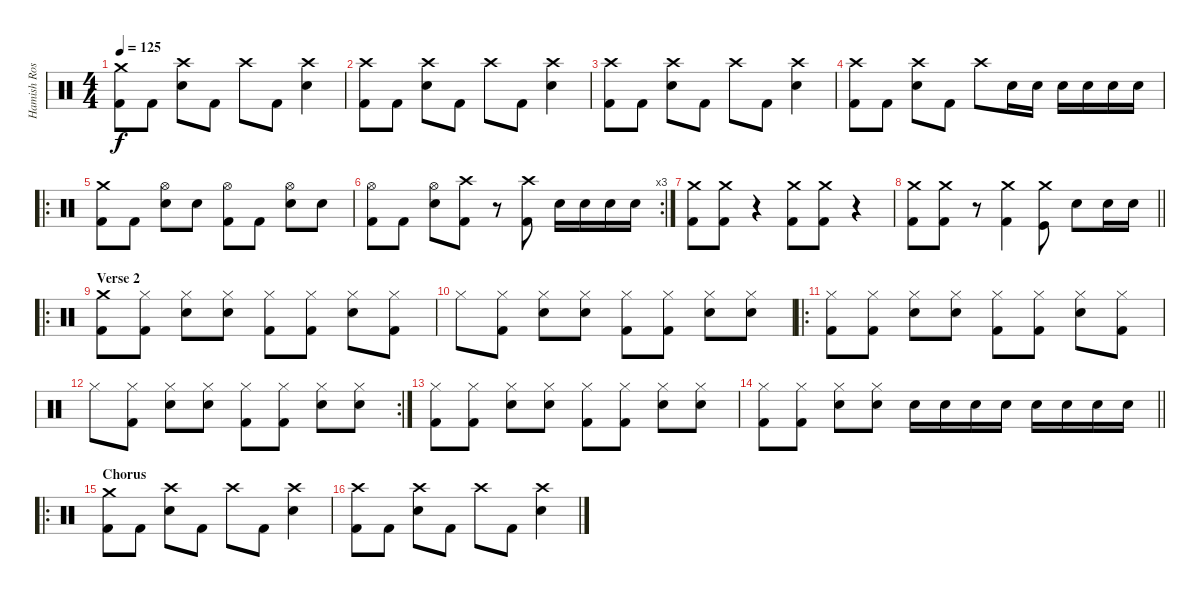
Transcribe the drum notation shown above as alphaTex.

\track ("Hamish Rosser" "Hamish Ros") {instrument percussion}
\staff {score}
\articulation defaults
\ts (4 4)
\tempo 125
\clef neutral
\ks c
("Crash medium (hit)" "Kick (hit) 2").8{dy f} "Kick (hit) 2".8 ("Crash high (hit)" "Electric Snare (hit)").8 "Kick (hit) 2".8 "Crash high (hit)".8 "Kick (hit) 2".8 ("Crash high (hit)" "Electric Snare (hit)").4 |
("Crash high (hit)" "Kick (hit) 2").8 "Kick (hit) 2".8 ("Crash high (hit)" "Electric Snare (hit)").8 "Kick (hit) 2".8 "Crash high (hit)".8 "Kick (hit) 2".8 ("Crash high (hit)" "Electric Snare (hit)").4 |
("Crash high (hit)" "Kick (hit) 2").8 "Kick (hit) 2".8 ("Crash high (hit)" "Electric Snare (hit)").8 "Kick (hit) 2".8 "Crash high (hit)".8 "Kick (hit) 2".8 ("Crash high (hit)" "Electric Snare (hit)").4 |
("Crash high (hit)" "Kick (hit) 2").8 "Kick (hit) 2".8 ("Crash high (hit)" "Electric Snare (hit)").8 "Kick (hit) 2".8 "Crash high (hit)".8 "Electric Snare (hit)".16 "Electric Snare (hit)".16 "Electric Snare (hit)".16 "Electric Snare (hit)".16 "Electric Snare (hit)".16 "Electric Snare (hit)".16 |
\ro
("Crash medium (hit)" "Kick (hit) 2").8 "Kick (hit) 2".8 ("Hi-Hat (open)" "Electric Snare (hit)").8 "Electric Snare (hit)".8 ("Hi-Hat (open)" "Kick (hit) 2").8 "Kick (hit) 2".8 ("Hi-Hat (open)" "Electric Snare (hit)").8 "Electric Snare (hit)".8 |
\rc 3
("Hi-Hat (open)" "Kick (hit) 2").8 "Kick (hit) 2".8 ("Hi-Hat (open)" "Electric Snare (hit)").8 ("Crash high (hit)" "Kick (hit) 2").8 r.8 ("Crash high (hit)" "Kick (hit) 2").8 "Electric Snare (hit)".16 "Electric Snare (hit)".16 "Electric Snare (hit)".16 "Electric Snare (hit)".16 |
("Crash medium (hit)" "Kick (hit) 2").8 ("Crash medium (hit)" "Kick (hit) 2").8 r.4 ("Crash medium (hit)" "Kick (hit) 2").8 ("Crash medium (hit)" "Kick (hit) 2").8 r.4 |
\barLineRight lightlight
("Crash medium (hit)" "Kick (hit) 2").8 ("Crash medium (hit)" "Kick (hit) 2").8 r.8 ("Crash medium (hit)" "Kick (hit) 2").4 ("Crash medium (hit)" "Kick (hit)").8 "Electric Snare (hit)".8 "Electric Snare (hit)".16 "Electric Snare (hit)".16 |
\ro
\section ("" "Verse 2")
("Crash medium (hit)" "Kick (hit) 2").8 ("Hi-Hat (closed)" "Kick (hit) 2").8 ("Hi-Hat (closed)" "Electric Snare (hit)").8 ("Hi-Hat (closed)" "Electric Snare (hit)").8 ("Hi-Hat (closed)" "Kick (hit) 2").8 ("Hi-Hat (closed)" "Kick (hit) 2").8 ("Hi-Hat (closed)" "Electric Snare (hit)").8 ("Hi-Hat (closed)" "Kick (hit) 2").8 |
"Hi-Hat (closed)".8 ("Hi-Hat (closed)" "Kick (hit) 2").8 ("Hi-Hat (closed)" "Electric Snare (hit)").8 ("Hi-Hat (closed)" "Electric Snare (hit)").8 ("Hi-Hat (closed)" "Kick (hit) 2").8 ("Hi-Hat (closed)" "Kick (hit) 2").8 ("Hi-Hat (closed)" "Electric Snare (hit)").8 ("Hi-Hat (closed)" "Electric Snare (hit)").8 |
\ro
("Hi-Hat (closed)" "Kick (hit) 2").8 ("Hi-Hat (closed)" "Kick (hit) 2").8 ("Hi-Hat (closed)" "Electric Snare (hit)").8 ("Hi-Hat (closed)" "Electric Snare (hit)").8 ("Hi-Hat (closed)" "Kick (hit) 2").8 ("Hi-Hat (closed)" "Kick (hit) 2").8 ("Hi-Hat (closed)" "Electric Snare (hit)").8 ("Hi-Hat (closed)" "Kick (hit) 2").8 |
\rc 2 "Hi-Hat (closed)".8
("Hi-Hat (closed)" "Kick (hit) 2").8 ("Hi-Hat (closed)" "Electric Snare (hit)").8 ("Hi-Hat (closed)" "Electric Snare (hit)").8 ("Hi-Hat (closed)" "Kick (hit) 2").8 ("Hi-Hat (closed)" "Kick (hit) 2").8 ("Hi-Hat (closed)" "Electric Snare (hit)").8 ("Hi-Hat (closed)" "Electric Snare (hit)").8 |
("Hi-Hat (closed)" "Kick (hit) 2").8 ("Hi-Hat (closed)" "Kick (hit) 2").8 ("Hi-Hat (closed)" "Electric Snare (hit)").8 ("Hi-Hat (closed)" "Electric Snare (hit)").8 ("Hi-Hat (closed)" "Kick (hit) 2").8 ("Hi-Hat (closed)" "Kick (hit) 2").8 ("Hi-Hat (closed)" "Electric Snare (hit)").8 ("Hi-Hat (closed)" "Electric Snare (hit)").8 |
\barLineRight lightlight
("Hi-Hat (closed)" "Kick (hit) 2").8 ("Hi-Hat (closed)" "Kick (hit) 2").8 ("Hi-Hat (closed)" "Electric Snare (hit)").8 ("Hi-Hat (closed)" "Electric Snare (hit)").8 "Electric Snare (hit)".16 "Electric Snare (hit)".16 "Electric Snare (hit)".16 "Electric Snare (hit)".16 "Electric Snare (hit)".16 "Electric Snare (hit)".16 "Electric Snare (hit)".16 "Electric Snare (hit)".16 |
\ro
\section ("" "Chorus")
("Crash medium (hit)" "Kick (hit) 2").8 "Kick (hit) 2".8 ("Crash high (hit)" "Electric Snare (hit)").8 "Kick (hit) 2".8 "Crash high (hit)".8 "Kick (hit) 2".8 ("Crash high (hit)" "Electric Snare (hit)").4 |
("Crash high (hit)" "Kick (hit) 2").8 "Kick (hit) 2".8 ("Crash high (hit)" "Electric Snare (hit)").8 "Kick (hit) 2".8 "Crash high (hit)".8 "Kick (hit) 2".8 ("Crash high (hit)" "Electric Snare (hit)").4
